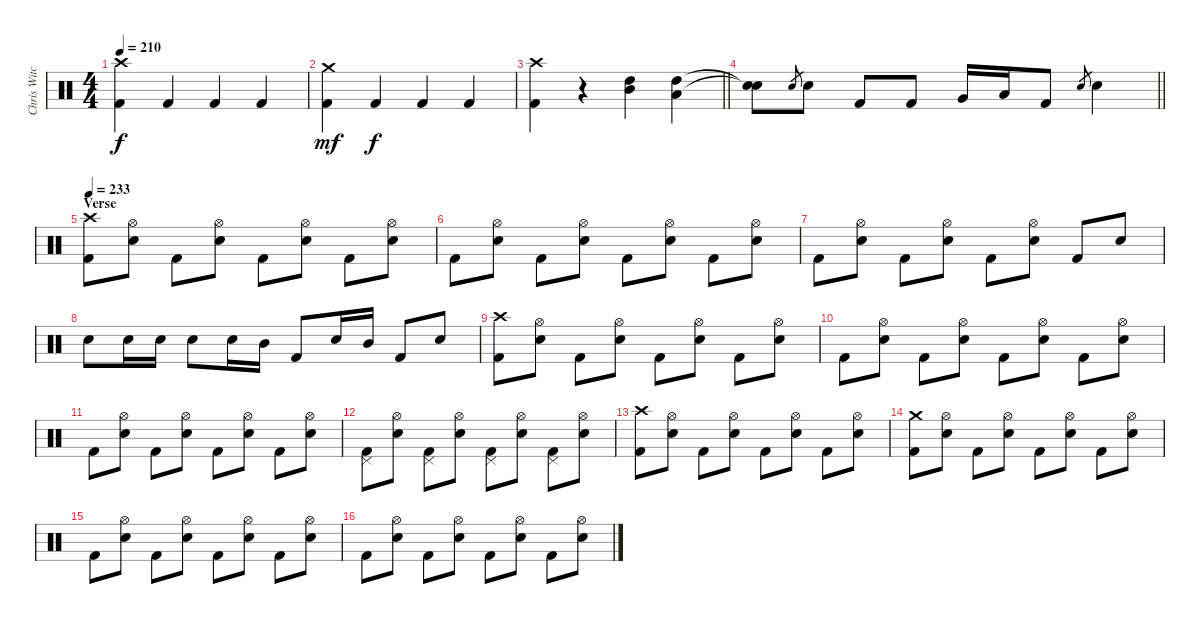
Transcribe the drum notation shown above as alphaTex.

\track ("Chris Witchunter" "Chris Witc") {instrument percussion}
\staff {score}
\articulation defaults
\ts (4 4)
\tempo 210
\clef neutral
\ks c
("Crash high (hit)" "Kick (hit) 2").4{dy f} "Kick (hit) 2".4 "Kick (hit) 2".4 "Kick (hit) 2".4 |
("Crash medium (hit)" "Kick (hit) 2").4{dy mf} "Kick (hit) 2".4{dy f} "Kick (hit) 2".4 "Kick (hit) 2".4 |
\barLineRight lightlight
("Crash high (hit)" "Kick (hit) 2").4 r.4 ("High Tom (hit)" "Mid Tom (hit)").4 ("High Tom (hit)" "Low Tom (hit)").4 |
\barLineRight lightlight
("Snare (hit)"{t} "Snare (hit)"{t}).8 "Snare (hit) 2".8{gr} "Snare (hit) 2".8 "Kick (hit) 2".8 "Kick (hit) 2".8 "Very Low Tom (hit)".16 "Low Floor Tom (hit)".16 "Kick (hit) 2".8 "Snare (hit) 2".8{gr} "Snare (hit) 2".4 |
\section ("" "Verse")
\tempo 233
("Crash high (hit)" "Kick (hit) 2").8 ("Hi-Hat (open)" "Snare (hit) 2").8 "Kick (hit) 2".8 ("Hi-Hat (open)" "Snare (hit) 2").8 "Kick (hit) 2".8 ("Hi-Hat (open)" "Snare (hit) 2").8 "Kick (hit) 2".8 ("Hi-Hat (open)" "Snare (hit) 2").8 |
"Kick (hit) 2".8 ("Hi-Hat (open)" "Snare (hit) 2").8 "Kick (hit) 2".8 ("Hi-Hat (open)" "Snare (hit) 2").8 "Kick (hit) 2".8 ("Hi-Hat (open)" "Snare (hit) 2").8 "Kick (hit) 2".8 ("Hi-Hat (open)" "Snare (hit) 2").8 |
"Kick (hit) 2".8 ("Hi-Hat (open)" "Snare (hit) 2").8 "Kick (hit) 2".8 ("Hi-Hat (open)" "Snare (hit) 2").8 "Kick (hit) 2".8 ("Hi-Hat (open)" "Snare (hit) 2").8 "Kick (hit) 2".8 "Snare (hit) 2".8 |
"Snare (hit) 2".8 "Snare (hit) 2".16 "Snare (hit) 2".16 "Snare (hit) 2".8 "Snare (hit) 2".16 "Mid Tom (hit)".16 "Kick (hit) 2".8 "Snare (hit) 2".16 "Mid Tom (hit)".16 "Kick (hit) 2".8 "Snare (hit) 2".8 |
("Crash high (hit)" "Kick (hit) 2").8 ("Hi-Hat (open)" "Snare (hit) 2").8 "Kick (hit) 2".8 ("Hi-Hat (open)" "Snare (hit) 2").8 "Kick (hit) 2".8 ("Hi-Hat (open)" "Snare (hit) 2").8 "Kick (hit) 2".8 ("Hi-Hat (open)" "Snare (hit) 2").8 |
"Kick (hit) 2".8 ("Hi-Hat (open)" "Snare (hit) 2").8 "Kick (hit) 2".8 ("Hi-Hat (open)" "Snare (hit) 2").8 "Kick (hit) 2".8 ("Hi-Hat (open)" "Snare (hit) 2").8 "Kick (hit) 2".8 ("Hi-Hat (open)" "Snare (hit) 2").8 |
"Kick (hit) 2".8 ("Hi-Hat (open)" "Snare (hit) 2").8 "Kick (hit) 2".8 ("Hi-Hat (open)" "Snare (hit) 2").8 "Kick (hit) 2".8 ("Hi-Hat (open)" "Snare (hit) 2").8 "Kick (hit) 2".8 ("Hi-Hat (open)" "Snare (hit) 2").8 |
("Pedal Hi-Hat (hit)" "Kick (hit) 2").8 ("Hi-Hat (open)" "Snare (hit) 2").8 ("Pedal Hi-Hat (hit)" "Kick (hit) 2").8 ("Hi-Hat (open)" "Snare (hit) 2").8 ("Pedal Hi-Hat (hit)" "Kick (hit) 2").8 ("Hi-Hat (open)" "Snare (hit) 2").8 ("Pedal Hi-Hat (hit)" "Kick (hit) 2").8 ("Hi-Hat (open)" "Snare (hit) 2").8 |
("Crash high (hit)" "Kick (hit) 2").8 ("Hi-Hat (open)" "Snare (hit) 2").8 "Kick (hit) 2".8 ("Hi-Hat (open)" "Snare (hit) 2").8 "Kick (hit) 2".8 ("Hi-Hat (open)" "Snare (hit) 2").8 "Kick (hit) 2".8 ("Hi-Hat (open)" "Snare (hit) 2").8 |
("Crash medium (hit)" "Kick (hit) 2").8 ("Hi-Hat (open)" "Snare (hit) 2").8 "Kick (hit) 2".8 ("Hi-Hat (open)" "Snare (hit) 2").8 "Kick (hit) 2".8 ("Hi-Hat (open)" "Snare (hit) 2").8 "Kick (hit) 2".8 ("Hi-Hat (open)" "Snare (hit) 2").8 |
"Kick (hit) 2".8 ("Hi-Hat (open)" "Snare (hit) 2").8 "Kick (hit) 2".8 ("Hi-Hat (open)" "Snare (hit) 2").8 "Kick (hit) 2".8 ("Hi-Hat (open)" "Snare (hit) 2").8 "Kick (hit) 2".8 ("Hi-Hat (open)" "Snare (hit) 2").8 |
"Kick (hit) 2".8 ("Hi-Hat (open)" "Snare (hit) 2").8 "Kick (hit) 2".8 ("Hi-Hat (open)" "Snare (hit) 2").8 "Kick (hit) 2".8 ("Hi-Hat (open)" "Snare (hit) 2").8 "Kick (hit) 2".8 ("Hi-Hat (open)" "Snare (hit) 2").8
